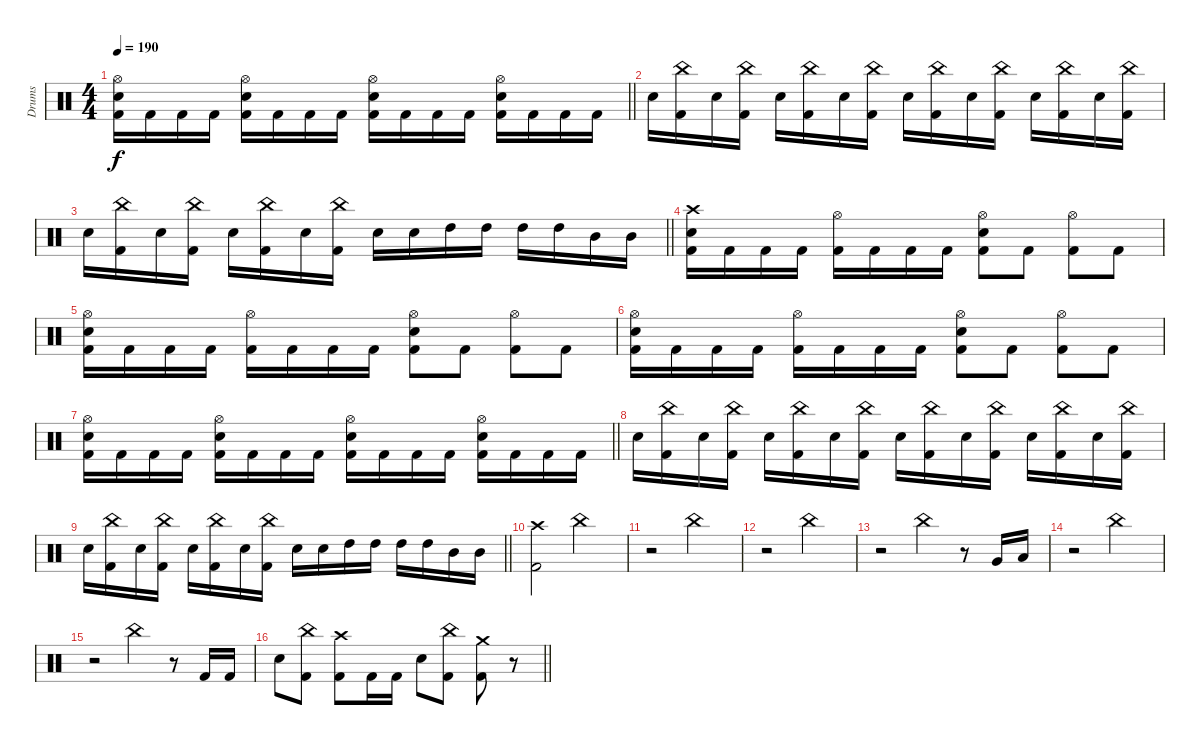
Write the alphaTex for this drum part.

\track ("Drums" "Drums") {instrument percussion}
\staff {score}
\articulation defaults
\ts (4 4)
\tempo 190
\clef neutral
\barLineRight lightlight
\ks c
("Hi-Hat (open)" "Snare (hit) 2" "Kick (hit) 2").16{dy f} "Kick (hit) 2".16 "Kick (hit) 2".16 "Kick (hit) 2".16 ("Hi-Hat (open)" "Snare (hit) 2" "Kick (hit) 2").16 "Kick (hit) 2".16 "Kick (hit) 2".16 "Kick (hit) 2".16 ("Hi-Hat (open)" "Snare (hit) 2" "Kick (hit) 2").16 "Kick (hit) 2".16 "Kick (hit) 2".16 "Kick (hit) 2".16 ("Hi-Hat (open)" "Snare (hit) 2" "Kick (hit) 2").16 "Kick (hit) 2".16 "Kick (hit) 2".16 "Kick (hit) 2".16 |
\section ("" "")
"Snare (hit) 2".16 ("China (hit)" "Kick (hit) 2").16 "Snare (hit) 2".16 ("China (hit)" "Kick (hit) 2").16 "Snare (hit) 2".16 ("China (hit)" "Kick (hit) 2").16 "Snare (hit) 2".16 ("China (hit)" "Kick (hit) 2").16 "Snare (hit) 2".16 ("China (hit)" "Kick (hit) 2").16 "Snare (hit) 2".16 ("China (hit)" "Kick (hit) 2").16 "Snare (hit) 2".16 ("China (hit)" "Kick (hit) 2").16 "Snare (hit) 2".16 ("China (hit)" "Kick (hit) 2").16 |
\barLineRight lightlight "Snare (hit) 2".16
("China (hit)" "Kick (hit) 2").16 "Snare (hit) 2".16 ("China (hit)" "Kick (hit) 2").16 "Snare (hit) 2".16 ("China (hit)" "Kick (hit) 2").16 "Snare (hit) 2".16 ("China (hit)" "Kick (hit) 2").16 "Snare (hit) 2".16 "Snare (hit) 2".16 "High Tom (hit)".16 "High Tom (hit)".16 "High Tom (hit)".16 "High Tom (hit)".16 "Mid Tom (hit)".16 "Mid Tom (hit)".16 |
\section ("" "")
("Crash high (hit)" "Snare (hit) 2" "Kick (hit) 2").16 "Kick (hit) 2".16 "Kick (hit) 2".16 "Kick (hit) 2".16 ("Hi-Hat (open)" "Kick (hit) 2").16 "Kick (hit) 2".16 "Kick (hit) 2".16 "Kick (hit) 2".16 ("Hi-Hat (open)" "Snare (hit) 2" "Kick (hit) 2").8 "Kick (hit) 2".8 ("Hi-Hat (open)" "Kick (hit) 2").8 "Kick (hit) 2".8 |
("Hi-Hat (open)" "Snare (hit) 2" "Kick (hit) 2").16 "Kick (hit) 2".16 "Kick (hit) 2".16 "Kick (hit) 2".16 ("Hi-Hat (open)" "Kick (hit) 2").16 "Kick (hit) 2".16 "Kick (hit) 2".16 "Kick (hit) 2".16 ("Hi-Hat (open)" "Snare (hit) 2" "Kick (hit) 2").8 "Kick (hit) 2".8 ("Hi-Hat (open)" "Kick (hit) 2").8 "Kick (hit) 2".8 |
("Hi-Hat (open)" "Snare (hit) 2" "Kick (hit) 2").16 "Kick (hit) 2".16 "Kick (hit) 2".16 "Kick (hit) 2".16 ("Hi-Hat (open)" "Kick (hit) 2").16 "Kick (hit) 2".16 "Kick (hit) 2".16 "Kick (hit) 2".16 ("Hi-Hat (open)" "Snare (hit) 2" "Kick (hit) 2").8 "Kick (hit) 2".8 ("Hi-Hat (open)" "Kick (hit) 2").8 "Kick (hit) 2".8 |
\barLineRight lightlight
("Hi-Hat (open)" "Snare (hit) 2" "Kick (hit) 2").16 "Kick (hit) 2".16 "Kick (hit) 2".16 "Kick (hit) 2".16 ("Hi-Hat (open)" "Snare (hit) 2" "Kick (hit) 2").16 "Kick (hit) 2".16 "Kick (hit) 2".16 "Kick (hit) 2".16 ("Hi-Hat (open)" "Snare (hit) 2" "Kick (hit) 2").16 "Kick (hit) 2".16 "Kick (hit) 2".16 "Kick (hit) 2".16 ("Hi-Hat (open)" "Snare (hit) 2" "Kick (hit) 2").16 "Kick (hit) 2".16 "Kick (hit) 2".16 "Kick (hit) 2".16 |
\section ("" "")
"Snare (hit) 2".16 ("China (hit)" "Kick (hit) 2").16 "Snare (hit) 2".16 ("China (hit)" "Kick (hit) 2").16 "Snare (hit) 2".16 ("China (hit)" "Kick (hit) 2").16 "Snare (hit) 2".16 ("China (hit)" "Kick (hit) 2").16 "Snare (hit) 2".16 ("China (hit)" "Kick (hit) 2").16 "Snare (hit) 2".16 ("China (hit)" "Kick (hit) 2").16 "Snare (hit) 2".16 ("China (hit)" "Kick (hit) 2").16 "Snare (hit) 2".16 ("China (hit)" "Kick (hit) 2").16 |
\barLineRight lightlight "Snare (hit) 2".16
("China (hit)" "Kick (hit) 2").16 "Snare (hit) 2".16 ("China (hit)" "Kick (hit) 2").16 "Snare (hit) 2".16 ("China (hit)" "Kick (hit) 2").16 "Snare (hit) 2".16 ("China (hit)" "Kick (hit) 2").16 "Snare (hit) 2".16 "Snare (hit) 2".16 "High Tom (hit)".16 "High Tom (hit)".16 "High Tom (hit)".16 "High Tom (hit)".16 "Mid Tom (hit)".16 "Mid Tom (hit)".16 |
\section ("" "")
("Crash high (hit)" "Kick (hit) 2").2 "China (hit)".2 |
r.2 "China (hit)".2 |
r.2 "China (hit)".2 |
r.2 "China (hit)".4 r.8 "Very Low Tom (hit)".16 "Low Floor Tom (hit)".16 |
r.2 "China (hit)".2 |
r.2 "China (hit)".4 r.8 "Kick (hit) 2".16 "Kick (hit) 2".16 |
\barLineRight lightlight "Snare (hit) 2".8
("China (hit)" "Kick (hit) 2").8 ("Crash high (hit)" "Kick (hit) 2").8 "Kick (hit) 2".16 "Kick (hit) 2".16 "Snare (hit) 2".8 ("China (hit)" "Kick (hit) 2").8 ("Crash medium (hit)" "Kick (hit) 2").8 r.8
